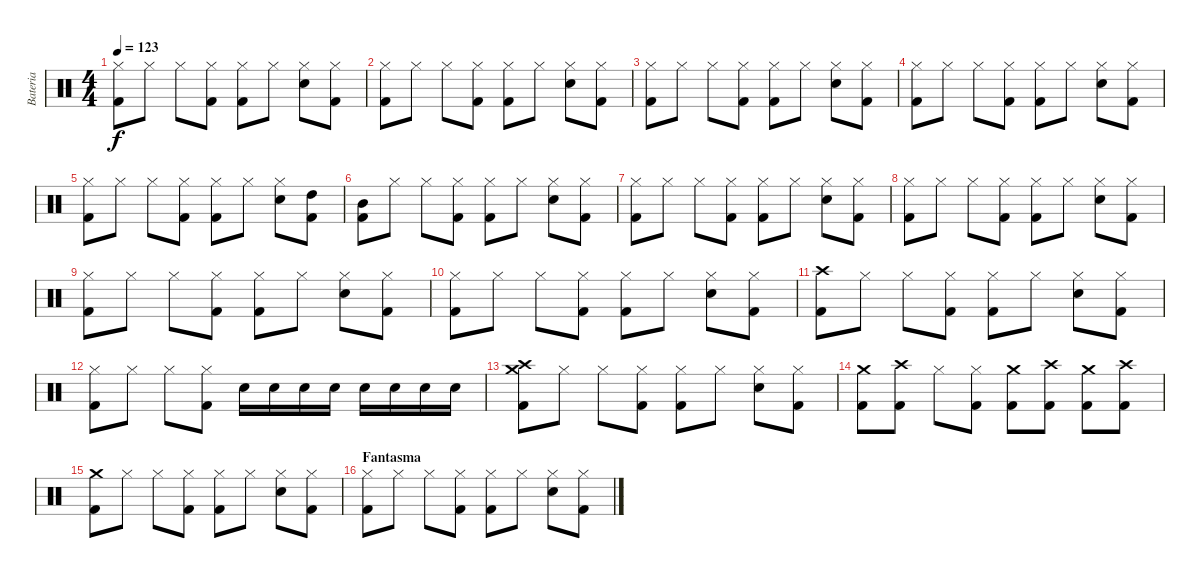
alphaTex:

\track ("Bateria" "Bateria") {instrument percussion}
\staff {score}
\articulation defaults
\ts (4 4)
\tempo 123
\clef neutral
\ks c
("Hi-Hat (closed)" "Kick (hit) 2").8{dy f} "Hi-Hat (closed)".8 "Hi-Hat (closed)".8 ("Hi-Hat (closed)" "Kick (hit) 2").8 ("Hi-Hat (closed)" "Kick (hit) 2").8 "Hi-Hat (closed)".8 ("Hi-Hat (closed)" "Snare (hit) 2").8 ("Hi-Hat (closed)" "Kick (hit) 2").8 |
("Hi-Hat (closed)" "Kick (hit) 2").8 "Hi-Hat (closed)".8 "Hi-Hat (closed)".8 ("Hi-Hat (closed)" "Kick (hit) 2").8 ("Hi-Hat (closed)" "Kick (hit) 2").8 "Hi-Hat (closed)".8 ("Hi-Hat (closed)" "Snare (hit) 2").8 ("Hi-Hat (closed)" "Kick (hit) 2").8 |
("Hi-Hat (closed)" "Kick (hit) 2").8 "Hi-Hat (closed)".8 "Hi-Hat (closed)".8 ("Hi-Hat (closed)" "Kick (hit) 2").8 ("Hi-Hat (closed)" "Kick (hit) 2").8 "Hi-Hat (closed)".8 ("Hi-Hat (closed)" "Snare (hit) 2").8 ("Hi-Hat (closed)" "Kick (hit) 2").8 |
("Hi-Hat (closed)" "Kick (hit) 2").8 "Hi-Hat (closed)".8 "Hi-Hat (closed)".8 ("Hi-Hat (closed)" "Kick (hit) 2").8 ("Hi-Hat (closed)" "Kick (hit) 2").8 "Hi-Hat (closed)".8 ("Hi-Hat (closed)" "Snare (hit) 2").8 ("Hi-Hat (closed)" "Kick (hit) 2").8 |
("Hi-Hat (closed)" "Kick (hit) 2").8 "Hi-Hat (closed)".8 "Hi-Hat (closed)".8 ("Hi-Hat (closed)" "Kick (hit) 2").8 ("Hi-Hat (closed)" "Kick (hit) 2").8 "Hi-Hat (closed)".8 ("Hi-Hat (closed)" "Snare (hit) 2").8 ("High Tom (hit)" "Kick (hit) 2").8 |
("Mid Tom (hit)" "Kick (hit) 2").8 "Hi-Hat (closed)".8 "Hi-Hat (closed)".8 ("Hi-Hat (closed)" "Kick (hit) 2").8 ("Hi-Hat (closed)" "Kick (hit) 2").8 "Hi-Hat (closed)".8 ("Hi-Hat (closed)" "Snare (hit) 2").8 ("Hi-Hat (closed)" "Kick (hit) 2").8 |
("Hi-Hat (closed)" "Kick (hit) 2").8 "Hi-Hat (closed)".8 "Hi-Hat (closed)".8 ("Hi-Hat (closed)" "Kick (hit) 2").8 ("Hi-Hat (closed)" "Kick (hit) 2").8 "Hi-Hat (closed)".8 ("Hi-Hat (closed)" "Snare (hit) 2").8 ("Hi-Hat (closed)" "Kick (hit) 2").8 |
("Hi-Hat (closed)" "Kick (hit) 2").8 "Hi-Hat (closed)".8 "Hi-Hat (closed)".8 ("Hi-Hat (closed)" "Kick (hit) 2").8 ("Hi-Hat (closed)" "Kick (hit) 2").8 "Hi-Hat (closed)".8 ("Hi-Hat (closed)" "Snare (hit) 2").8 ("Hi-Hat (closed)" "Kick (hit) 2").8 |
("Hi-Hat (closed)" "Kick (hit) 2").8 "Hi-Hat (closed)".8 "Hi-Hat (closed)".8 ("Hi-Hat (closed)" "Kick (hit) 2").8 ("Hi-Hat (closed)" "Kick (hit) 2").8 "Hi-Hat (closed)".8 ("Hi-Hat (closed)" "Snare (hit) 2").8 ("Hi-Hat (closed)" "Kick (hit) 2").8 |
("Hi-Hat (closed)" "Kick (hit) 2").8 "Hi-Hat (closed)".8 "Hi-Hat (closed)".8 ("Hi-Hat (closed)" "Kick (hit) 2").8 ("Hi-Hat (closed)" "Kick (hit) 2").8 "Hi-Hat (closed)".8 ("Hi-Hat (closed)" "Snare (hit) 2").8 ("Hi-Hat (closed)" "Kick (hit) 2").8 |
("Crash high (hit)" "Kick (hit) 2").8 "Hi-Hat (closed)".8 "Hi-Hat (closed)".8 ("Hi-Hat (closed)" "Kick (hit) 2").8 ("Hi-Hat (closed)" "Kick (hit) 2").8 "Hi-Hat (closed)".8 ("Hi-Hat (closed)" "Snare (hit) 2").8 ("Hi-Hat (closed)" "Kick (hit) 2").8 |
("Hi-Hat (closed)" "Kick (hit) 2").8 "Hi-Hat (closed)".8 "Hi-Hat (closed)".8 ("Hi-Hat (closed)" "Kick (hit) 2").8 "Snare (hit) 2".16 "Snare (hit) 2".16 "Snare (hit) 2".16 "Snare (hit) 2".16 "Snare (hit) 2".16 "Snare (hit) 2".16 "Snare (hit) 2".16 "Snare (hit) 2".16 |
("Crash medium (hit)" "Crash high (hit)" "Kick (hit) 2").8 "Hi-Hat (closed)".8 "Hi-Hat (closed)".8 ("Hi-Hat (closed)" "Kick (hit) 2").8 ("Hi-Hat (closed)" "Kick (hit) 2").8 "Hi-Hat (closed)".8 ("Hi-Hat (closed)" "Snare (hit) 2").8 ("Hi-Hat (closed)" "Kick (hit) 2").8 |
("Crash medium (hit)" "Kick (hit) 2").8 ("Crash high (hit)" "Kick (hit) 2").8 "Hi-Hat (closed)".8 ("Hi-Hat (closed)" "Kick (hit) 2").8 ("Crash medium (hit)" "Kick (hit) 2").8 ("Crash high (hit)" "Kick (hit) 2").8 ("Crash medium (hit)" "Kick (hit) 2").8 ("Crash high (hit)" "Kick (hit) 2").8 |
("Crash medium (hit)" "Kick (hit) 2").8 "Hi-Hat (closed)".8 "Hi-Hat (closed)".8 ("Hi-Hat (closed)" "Kick (hit) 2").8 ("Hi-Hat (closed)" "Kick (hit) 2").8 "Hi-Hat (closed)".8 ("Hi-Hat (closed)" "Snare (hit) 2").8 ("Hi-Hat (closed)" "Kick (hit) 2").8 |
\section ("" "Fantasma")
("Hi-Hat (closed)" "Kick (hit) 2").8 "Hi-Hat (closed)".8 "Hi-Hat (closed)".8 ("Hi-Hat (closed)" "Kick (hit) 2").8 ("Hi-Hat (closed)" "Kick (hit) 2").8 "Hi-Hat (closed)".8 ("Hi-Hat (closed)" "Snare (hit) 2").8 ("Hi-Hat (closed)" "Kick (hit) 2").8
